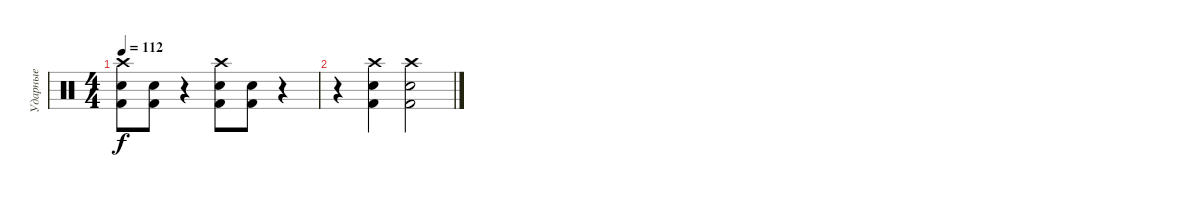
\track ("Ударные" "Ударные") {instrument percussion}
\staff {score}
\articulation defaults
\ts (4 4)
\tempo 112
\clef neutral
\ks c
("Crash high (hit)" "Snare (hit) 2" "Kick (hit) 2").8{dy f} ("Snare (hit) 2" "Kick (hit) 2").8 r.4 ("Crash high (hit)" "Snare (hit) 2" "Kick (hit) 2").8 ("Snare (hit) 2" "Kick (hit) 2").8 r.4 |
r.4 ("Crash high (hit)" "Snare (hit) 2" "Kick (hit) 2").4 ("Crash high (hit)" "Snare (hit) 2" "Kick (hit) 2").2
